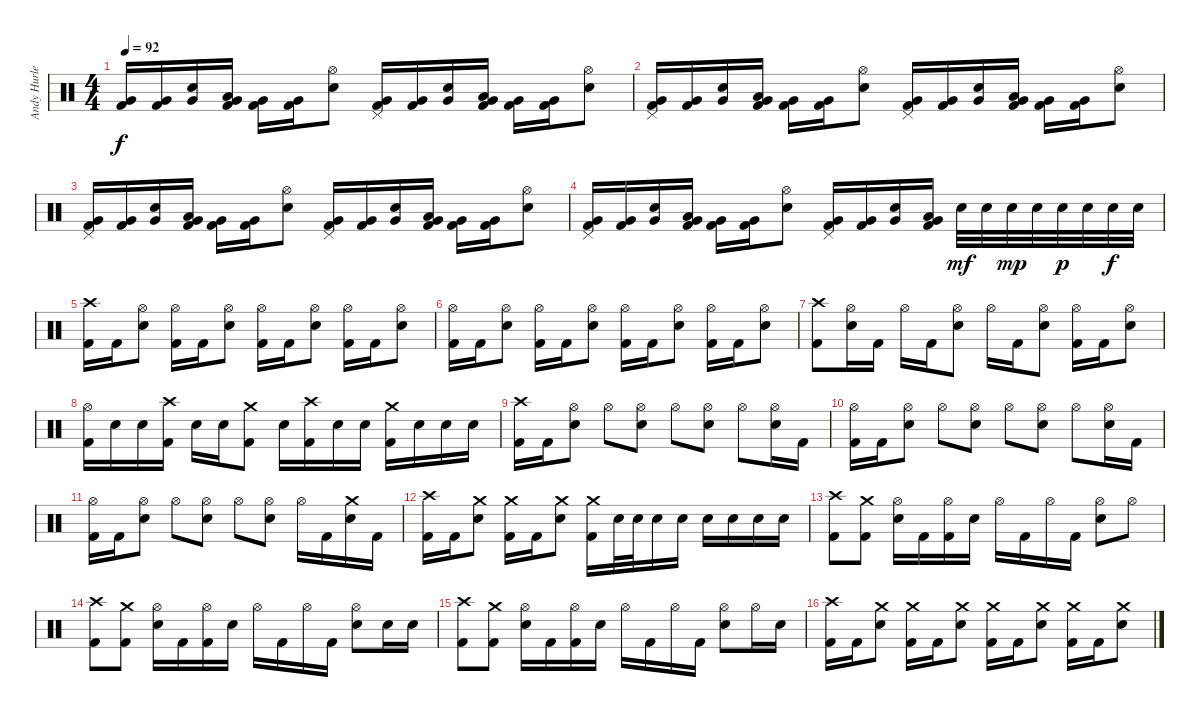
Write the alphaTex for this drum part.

\track ("Andy Hurley" "Andy Hurle") {instrument percussion}
\staff {score}
\articulation defaults
\ts (4 4)
\tempo 92
\clef neutral
\ks c
("Very Low Tom (hit)" "Kick (hit) 2").16{dy f} ("Very Low Tom (hit)" "Kick (hit) 2").16 ("Snare (hit) 2" "Very Low Tom (hit)").16 ("Low Tom (hit)" "Very Low Tom (hit)" "Kick (hit) 2").16 ("Very Low Tom (hit)" "Kick (hit) 2").16 ("Very Low Tom (hit)" "Kick (hit) 2").16 ("Hi-Hat (open)" "Snare (hit) 2").8 ("Pedal Hi-Hat (hit)" "Very Low Tom (hit)" "Kick (hit) 2").16 ("Very Low Tom (hit)" "Kick (hit) 2").16 ("Snare (hit) 2" "Very Low Tom (hit)").16 ("Low Tom (hit)" "Very Low Tom (hit)" "Kick (hit) 2").16 ("Very Low Tom (hit)" "Kick (hit) 2").16 ("Very Low Tom (hit)" "Kick (hit) 2").16 ("Hi-Hat (open)" "Snare (hit) 2").8 |
("Pedal Hi-Hat (hit)" "Very Low Tom (hit)" "Kick (hit) 2").16 ("Very Low Tom (hit)" "Kick (hit) 2").16 ("Snare (hit) 2" "Very Low Tom (hit)").16 ("Low Tom (hit)" "Very Low Tom (hit)" "Kick (hit) 2").16 ("Very Low Tom (hit)" "Kick (hit) 2").16 ("Very Low Tom (hit)" "Kick (hit) 2").16 ("Hi-Hat (open)" "Snare (hit) 2").8 ("Pedal Hi-Hat (hit)" "Very Low Tom (hit)" "Kick (hit) 2").16 ("Very Low Tom (hit)" "Kick (hit) 2").16 ("Snare (hit) 2" "Very Low Tom (hit)").16 ("Low Tom (hit)" "Very Low Tom (hit)" "Kick (hit) 2").16 ("Very Low Tom (hit)" "Kick (hit) 2").16 ("Very Low Tom (hit)" "Kick (hit) 2").16 ("Hi-Hat (open)" "Snare (hit) 2").8 |
("Pedal Hi-Hat (hit)" "Very Low Tom (hit)" "Kick (hit) 2").16 ("Very Low Tom (hit)" "Kick (hit) 2").16 ("Snare (hit) 2" "Very Low Tom (hit)").16 ("Low Tom (hit)" "Very Low Tom (hit)" "Kick (hit) 2").16 ("Very Low Tom (hit)" "Kick (hit) 2").16 ("Very Low Tom (hit)" "Kick (hit) 2").16 ("Hi-Hat (open)" "Snare (hit) 2").8 ("Pedal Hi-Hat (hit)" "Very Low Tom (hit)" "Kick (hit) 2").16 ("Very Low Tom (hit)" "Kick (hit) 2").16 ("Snare (hit) 2" "Very Low Tom (hit)").16 ("Low Tom (hit)" "Very Low Tom (hit)" "Kick (hit) 2").16 ("Very Low Tom (hit)" "Kick (hit) 2").16 ("Very Low Tom (hit)" "Kick (hit) 2").16 ("Hi-Hat (open)" "Snare (hit) 2").8 |
("Pedal Hi-Hat (hit)" "Very Low Tom (hit)" "Kick (hit) 2").16 ("Very Low Tom (hit)" "Kick (hit) 2").16 ("Snare (hit) 2" "Very Low Tom (hit)").16 ("Low Tom (hit)" "Very Low Tom (hit)" "Kick (hit) 2").16 ("Very Low Tom (hit)" "Kick (hit) 2").16 ("Very Low Tom (hit)" "Kick (hit) 2").16 ("Hi-Hat (open)" "Snare (hit) 2").8 ("Pedal Hi-Hat (hit)" "Very Low Tom (hit)" "Kick (hit) 2").16 ("Very Low Tom (hit)" "Kick (hit) 2").16 ("Snare (hit) 2" "Very Low Tom (hit)").16 ("Low Tom (hit)" "Very Low Tom (hit)" "Kick (hit) 2").16 "Snare (hit) 2".32{dy mf} "Snare (hit) 2".32 "Snare (hit) 2".32{dy mp} "Snare (hit) 2".32 "Snare (hit) 2".32{dy p} "Snare (hit) 2".32 "Snare (hit) 2".32{dy f} "Snare (hit) 2".32 |
("Crash high (hit)" "Kick (hit) 2").16 "Kick (hit) 2".16 ("Hi-Hat (open)" "Snare (hit) 2").8 ("Hi-Hat (open)" "Kick (hit) 2").16 "Kick (hit) 2".16 ("Hi-Hat (open)" "Snare (hit) 2").8 ("Hi-Hat (open)" "Kick (hit) 2").16 "Kick (hit) 2".16 ("Hi-Hat (open)" "Snare (hit) 2").8 ("Hi-Hat (open)" "Kick (hit) 2").16 "Kick (hit) 2".16 ("Hi-Hat (open)" "Snare (hit) 2").8 |
("Hi-Hat (open)" "Kick (hit) 2").16 "Kick (hit) 2".16 ("Hi-Hat (open)" "Snare (hit) 2").8 ("Hi-Hat (open)" "Kick (hit) 2").16 "Kick (hit) 2".16 ("Hi-Hat (open)" "Snare (hit) 2").8 ("Hi-Hat (open)" "Kick (hit) 2").16 "Kick (hit) 2".16 ("Hi-Hat (open)" "Snare (hit) 2").8 ("Hi-Hat (open)" "Kick (hit) 2").16 "Kick (hit) 2".16 ("Hi-Hat (open)" "Snare (hit) 2").8 |
("Crash high (hit)" "Kick (hit) 2").8 ("Hi-Hat (open)" "Snare (hit) 2").16 "Kick (hit) 2".16 "Hi-Hat (open)".16 "Kick (hit) 2".16 ("Hi-Hat (open)" "Snare (hit) 2").8 "Hi-Hat (open)".16 "Kick (hit) 2".16 ("Hi-Hat (open)" "Snare (hit) 2").8 ("Hi-Hat (open)" "Kick (hit) 2").16 "Kick (hit) 2".16 ("Hi-Hat (open)" "Snare (hit) 2").8 |
("Hi-Hat (open)" "Kick (hit) 2").16 "Snare (hit) 2".16 "Snare (hit) 2".16 ("Crash high (hit)" "Kick (hit) 2").16 "Snare (hit) 2".16 "Snare (hit) 2".16 ("Crash medium (hit)" "Kick (hit) 2").8 "Snare (hit) 2".16 ("Crash high (hit)" "Kick (hit) 2").16 "Snare (hit) 2".16 "Snare (hit) 2".16 ("Crash medium (hit)" "Kick (hit) 2").16 "Snare (hit) 2".16 "Snare (hit) 2".16 "Snare (hit) 2".16 |
("Crash high (hit)" "Kick (hit) 2").16 "Kick (hit) 2".16 ("Hi-Hat (open)" "Snare (hit) 2").8 "Hi-Hat (open)".8 ("Hi-Hat (open)" "Snare (hit) 2").8 "Hi-Hat (open)".8 ("Hi-Hat (open)" "Snare (hit) 2").8 "Hi-Hat (open)".8 ("Hi-Hat (open)" "Snare (hit) 2").16 "Kick (hit) 2".16 |
("Hi-Hat (open)" "Kick (hit) 2").16 "Kick (hit) 2".16 ("Hi-Hat (open)" "Snare (hit) 2").8 "Hi-Hat (open)".8 ("Hi-Hat (open)" "Snare (hit) 2").8 "Hi-Hat (open)".8 ("Hi-Hat (open)" "Snare (hit) 2").8 "Hi-Hat (open)".8 ("Hi-Hat (open)" "Snare (hit) 2").16 "Kick (hit) 2".16 |
("Hi-Hat (open)" "Kick (hit) 2").16 "Kick (hit) 2".16 ("Hi-Hat (open)" "Snare (hit) 2").8 "Hi-Hat (open)".8 ("Hi-Hat (open)" "Snare (hit) 2").8 "Hi-Hat (open)".8 ("Hi-Hat (open)" "Snare (hit) 2").8 "Hi-Hat (open)".16 "Kick (hit) 2".16 ("Crash medium (hit)" "Snare (hit) 2").16 "Kick (hit) 2".16 |
("Crash high (hit)" "Kick (hit) 2").16 "Kick (hit) 2".16 ("Crash medium (hit)" "Snare (hit) 2").8 ("Crash medium (hit)" "Kick (hit) 2").16 "Kick (hit) 2".16 ("Crash medium (hit)" "Snare (hit) 2").8 ("Crash medium (hit)" "Kick (hit) 2").16 "Snare (hit) 2".32 "Snare (hit) 2".32 "Snare (hit) 2".16 "Snare (hit) 2".16 "Snare (hit) 2".16 "Snare (hit) 2".16 "Snare (hit) 2".16 "Snare (hit) 2".16 |
("Crash high (hit)" "Kick (hit) 2").8 ("Crash medium (hit)" "Kick (hit) 2").8 ("Hi-Hat (open)" "Snare (hit) 2").16 "Kick (hit) 2".16 ("Hi-Hat (open)" "Kick (hit) 2").16 "Snare (hit) 2".16 "Hi-Hat (open)".16 "Kick (hit) 2".16 "Hi-Hat (open)".16 "Kick (hit) 2".16 ("Hi-Hat (open)" "Snare (hit) 2").8 "Hi-Hat (open)".8 |
("Crash high (hit)" "Kick (hit) 2").8 ("Crash medium (hit)" "Kick (hit) 2").8 ("Hi-Hat (open)" "Snare (hit) 2").16 "Kick (hit) 2".16 ("Hi-Hat (open)" "Kick (hit) 2").16 "Snare (hit) 2".16 "Hi-Hat (open)".16 "Kick (hit) 2".16 "Hi-Hat (open)".16 "Kick (hit) 2".16 ("Hi-Hat (open)" "Snare (hit) 2").8 "Snare (hit) 2".16 "Snare (hit) 2".16 |
("Crash high (hit)" "Kick (hit) 2").8 ("Crash medium (hit)" "Kick (hit) 2").8 ("Hi-Hat (open)" "Snare (hit) 2").16 "Kick (hit) 2".16 ("Hi-Hat (open)" "Kick (hit) 2").16 "Snare (hit) 2".16 "Hi-Hat (open)".16 "Kick (hit) 2".16 "Hi-Hat (open)".16 "Kick (hit) 2".16 ("Hi-Hat (open)" "Snare (hit) 2").8 "Hi-Hat (open)".16 "Snare (hit) 2".16 |
("Crash high (hit)" "Kick (hit) 2").16 "Kick (hit) 2".16 ("Crash medium (hit)" "Snare (hit) 2").8 ("Crash medium (hit)" "Kick (hit) 2").16 "Kick (hit) 2".16 ("Crash medium (hit)" "Snare (hit) 2").8 ("Crash medium (hit)" "Kick (hit) 2").16 "Kick (hit) 2".16 ("Crash medium (hit)" "Snare (hit) 2").8 ("Crash medium (hit)" "Kick (hit) 2").16 "Kick (hit) 2".16 ("Crash medium (hit)" "Snare (hit) 2").8
